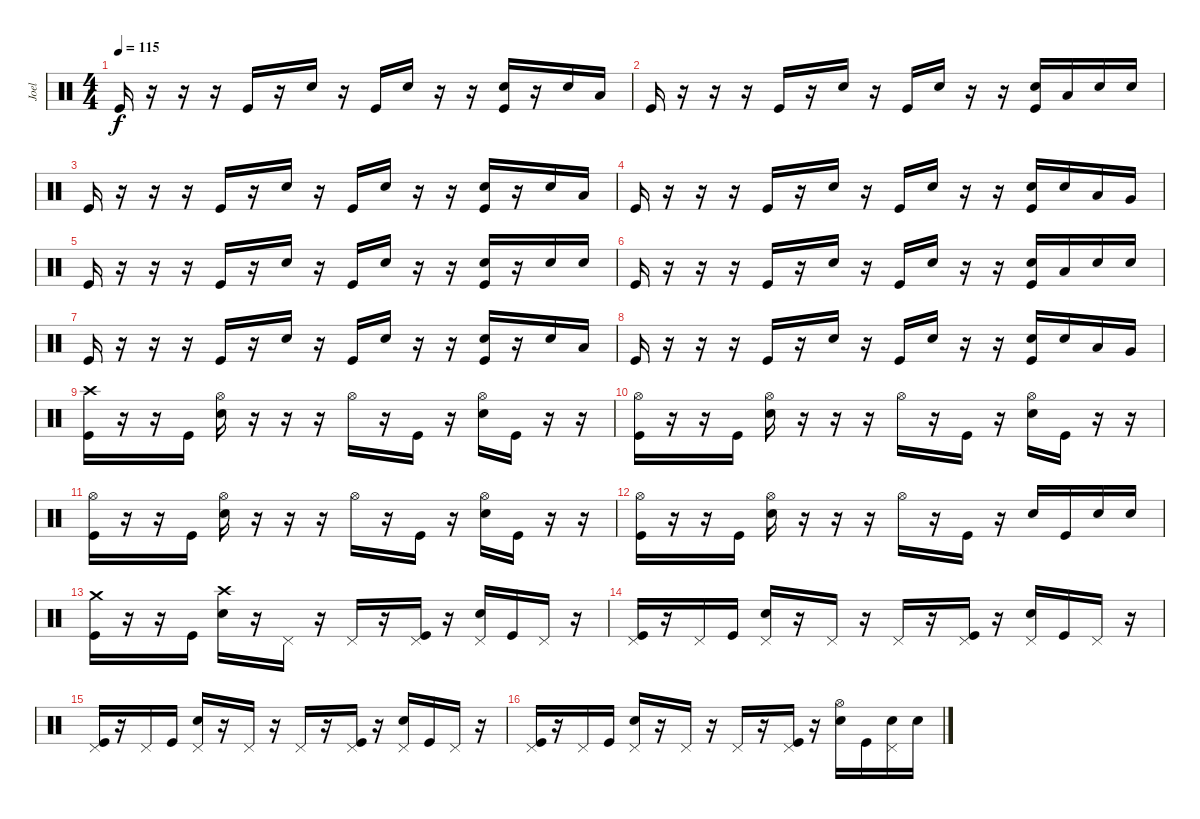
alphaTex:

\track ("Joel" "Joel") {instrument percussion}
\staff {score}
\articulation defaults
\ts (4 4)
\tempo 115
\clef neutral
\ks c "Kick (hit)".16{dy f}
r.16 r.16 r.16 "Kick (hit)".16 r.16 "Electric Snare (hit)".16 r.16 "Kick (hit)".16 "Electric Snare (hit)".16 r.16 r.16 ("Electric Snare (hit)" "Kick (hit)").16 r.16 "Electric Snare (hit)".16 "Low Tom (hit)".16 |
"Kick (hit)".16 r.16 r.16 r.16 "Kick (hit)".16 r.16 "Electric Snare (hit)".16 r.16 "Kick (hit)".16 "Electric Snare (hit)".16 r.16 r.16 ("Electric Snare (hit)" "Kick (hit)").16 "Low Tom (hit)".16 "Electric Snare (hit)".16 "Electric Snare (hit)".16 |
"Kick (hit)".16 r.16 r.16 r.16 "Kick (hit)".16 r.16 "Electric Snare (hit)".16 r.16 "Kick (hit)".16 "Electric Snare (hit)".16 r.16 r.16 ("Electric Snare (hit)" "Kick (hit)").16 r.16 "Electric Snare (hit)".16 "Low Tom (hit)".16 |
"Kick (hit)".16 r.16 r.16 r.16 "Kick (hit)".16 r.16 "Electric Snare (hit)".16 r.16 "Kick (hit)".16 "Electric Snare (hit)".16 r.16 r.16 ("Electric Snare (hit)" "Kick (hit)").16 "Electric Snare (hit)".16 "Low Tom (hit)".16 "Very Low Tom (hit)".16 |
"Kick (hit)".16 r.16 r.16 r.16 "Kick (hit)".16 r.16 "Electric Snare (hit)".16 r.16 "Kick (hit)".16 "Electric Snare (hit)".16 r.16 r.16 ("Electric Snare (hit)" "Kick (hit)").16 r.16 "Electric Snare (hit)".16 "Electric Snare (hit)".16 |
"Kick (hit)".16 r.16 r.16 r.16 "Kick (hit)".16 r.16 "Electric Snare (hit)".16 r.16 "Kick (hit)".16 "Electric Snare (hit)".16 r.16 r.16 ("Electric Snare (hit)" "Kick (hit)").16 "Low Tom (hit)".16 "Electric Snare (hit)".16 "Electric Snare (hit)".16 |
"Kick (hit)".16 r.16 r.16 r.16 "Kick (hit)".16 r.16 "Electric Snare (hit)".16 r.16 "Kick (hit)".16 "Electric Snare (hit)".16 r.16 r.16 ("Electric Snare (hit)" "Kick (hit)").16 r.16 "Electric Snare (hit)".16 "Low Tom (hit)".16 |
"Kick (hit)".16 r.16 r.16 r.16 "Kick (hit)".16 r.16 "Electric Snare (hit)".16 r.16 "Kick (hit)".16 "Electric Snare (hit)".16 r.16 r.16 ("Electric Snare (hit)" "Kick (hit)").16 "Electric Snare (hit)".16 "Low Tom (hit)".16 "Very Low Tom (hit)".16 |
("Crash high (hit)" "Kick (hit)").16 r.16 r.16 "Kick (hit)".16 ("Hi-Hat (open)" "Electric Snare (hit)").16 r.16 r.16 r.16 "Hi-Hat (open)".16 r.16 "Kick (hit)".16 r.16 ("Hi-Hat (open)" "Electric Snare (hit)").16 "Kick (hit)".16 r.16 r.16 |
("Hi-Hat (open)" "Kick (hit)").16 r.16 r.16 "Kick (hit)".16 ("Hi-Hat (open)" "Electric Snare (hit)").16 r.16 r.16 r.16 "Hi-Hat (open)".16 r.16 "Kick (hit)".16 r.16 ("Hi-Hat (open)" "Electric Snare (hit)").16 "Kick (hit)".16 r.16 r.16 |
("Hi-Hat (open)" "Kick (hit)").16 r.16 r.16 "Kick (hit)".16 ("Hi-Hat (open)" "Electric Snare (hit)").16 r.16 r.16 r.16 "Hi-Hat (open)".16 r.16 "Kick (hit)".16 r.16 ("Hi-Hat (open)" "Electric Snare (hit)").16 "Kick (hit)".16 r.16 r.16 |
("Hi-Hat (open)" "Kick (hit)").16 r.16 r.16 "Kick (hit)".16 ("Hi-Hat (open)" "Electric Snare (hit)").16 r.16 r.16 r.16 "Hi-Hat (open)".16 r.16 "Kick (hit)".16 r.16 "Electric Snare (hit)".16 "Kick (hit)".16 "Electric Snare (hit)".16 "Electric Snare (hit)".16 |
("Crash medium (hit)" "Kick (hit)").16 r.16 r.16 "Kick (hit)".16 ("Crash high (hit)" "Electric Snare (hit)").16 r.16 "Pedal Hi-Hat (hit)".16 r.16 "Pedal Hi-Hat (hit)".16 r.16 ("Pedal Hi-Hat (hit)" "Kick (hit)").16 r.16 ("Pedal Hi-Hat (hit)" "Electric Snare (hit)").16 "Kick (hit)".16 "Pedal Hi-Hat (hit)".16 r.16 |
("Pedal Hi-Hat (hit)" "Kick (hit)").16 r.16 "Pedal Hi-Hat (hit)".16 "Kick (hit)".16 ("Pedal Hi-Hat (hit)" "Electric Snare (hit)").16 r.16 "Pedal Hi-Hat (hit)".16 r.16 "Pedal Hi-Hat (hit)".16 r.16 ("Pedal Hi-Hat (hit)" "Kick (hit)").16 r.16 ("Pedal Hi-Hat (hit)" "Electric Snare (hit)").16 "Kick (hit)".16 "Pedal Hi-Hat (hit)".16 r.16 |
("Pedal Hi-Hat (hit)" "Kick (hit)").16 r.16 "Pedal Hi-Hat (hit)".16 "Kick (hit)".16 ("Pedal Hi-Hat (hit)" "Electric Snare (hit)").16 r.16 "Pedal Hi-Hat (hit)".16 r.16 "Pedal Hi-Hat (hit)".16 r.16 ("Pedal Hi-Hat (hit)" "Kick (hit)").16 r.16 ("Pedal Hi-Hat (hit)" "Electric Snare (hit)").16 "Kick (hit)".16 "Pedal Hi-Hat (hit)".16 r.16 |
("Pedal Hi-Hat (hit)" "Kick (hit)").16 r.16 "Pedal Hi-Hat (hit)".16 "Kick (hit)".16 ("Pedal Hi-Hat (hit)" "Electric Snare (hit)").16 r.16 "Pedal Hi-Hat (hit)".16 r.16 "Pedal Hi-Hat (hit)".16 r.16 ("Pedal Hi-Hat (hit)" "Kick (hit)").16 r.16 ("Hi-Hat (open)" "Electric Snare (hit)").16 "Kick (hit)".16 ("Pedal Hi-Hat (hit)" "Electric Snare (hit)").16 "Electric Snare (hit)".16
